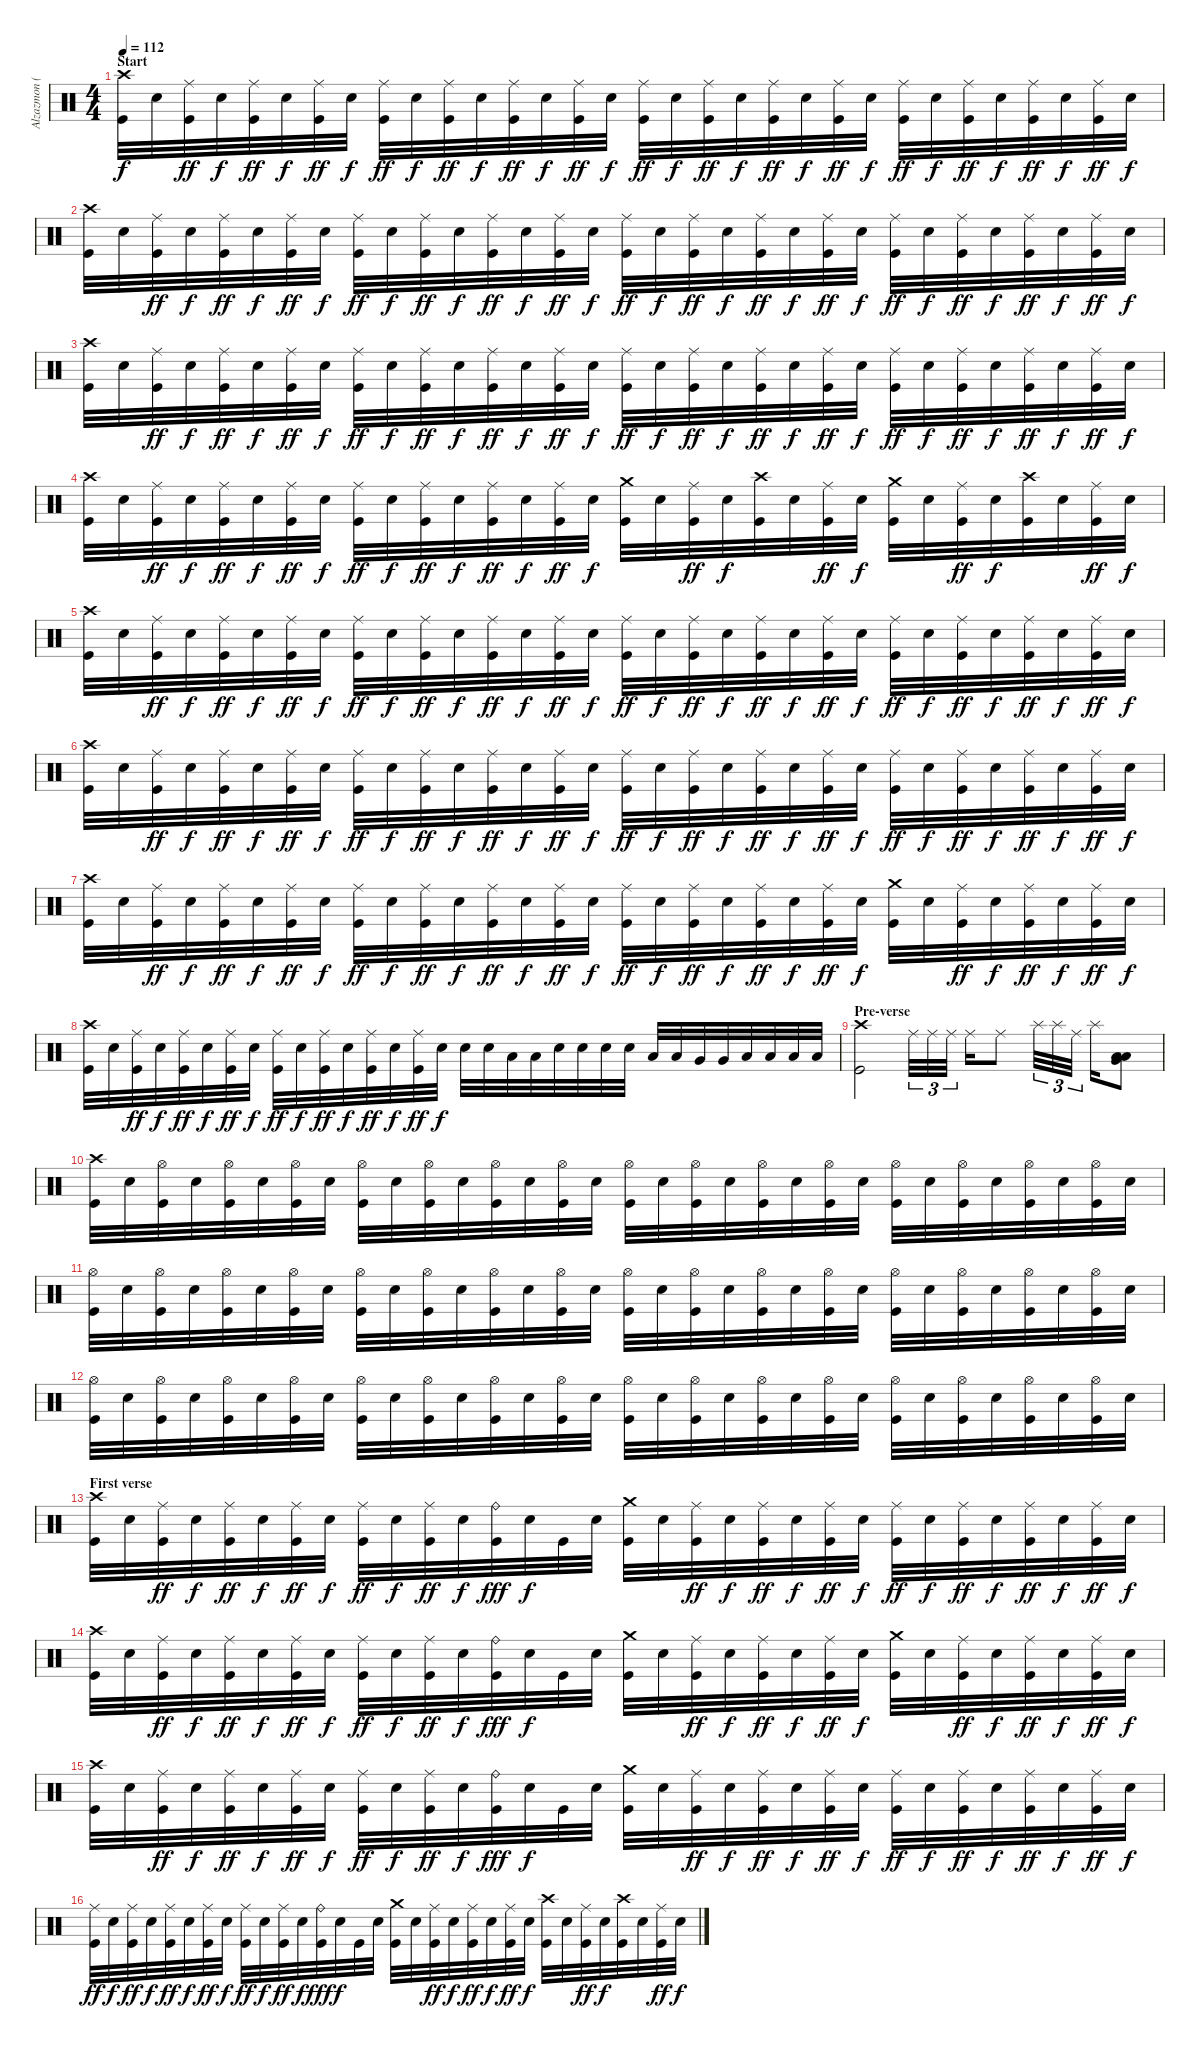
\track ("Alzazmon (Drums)" "Alzazmon (") {instrument percussion}
\staff {score}
\articulation defaults
\ts (4 4)
\section ("" "Start")
\tempo 112
\clef neutral
\ks c
("Crash high (hit)" "Kick (hit)").32{dy f} "Electric Snare (hit)".32 ("Ride (middle)" "Kick (hit)").32{dy ff} "Electric Snare (hit)".32{dy f} ("Ride (middle)" "Kick (hit)").32{dy ff} "Electric Snare (hit)".32{dy f} ("Ride (middle)" "Kick (hit)").32{dy ff} "Electric Snare (hit)".32{dy f} ("Ride (middle)" "Kick (hit)").32{dy ff} "Electric Snare (hit)".32{dy f} ("Ride (middle)" "Kick (hit)").32{dy ff} "Electric Snare (hit)".32{dy f} ("Ride (middle)" "Kick (hit)").32{dy ff} "Electric Snare (hit)".32{dy f} ("Ride (middle)" "Kick (hit)").32{dy ff} "Electric Snare (hit)".32{dy f} ("Ride (middle)" "Kick (hit)").32{dy ff} "Electric Snare (hit)".32{dy f} ("Ride (middle)" "Kick (hit)").32{dy ff} "Electric Snare (hit)".32{dy f} ("Ride (middle)" "Kick (hit)").32{dy ff} "Electric Snare (hit)".32{dy f} ("Ride (middle)" "Kick (hit)").32{dy ff} "Electric Snare (hit)".32{dy f} ("Ride (middle)" "Kick (hit)").32{dy ff} "Electric Snare (hit)".32{dy f} ("Ride (middle)" "Kick (hit)").32{dy ff} "Electric Snare (hit)".32{dy f} ("Ride (middle)" "Kick (hit)").32{dy ff} "Electric Snare (hit)".32{dy f} ("Ride (middle)" "Kick (hit)").32{dy ff} "Electric Snare (hit)".32{dy f} |
("Crash high (hit)" "Kick (hit)").32 "Electric Snare (hit)".32 ("Ride (middle)" "Kick (hit)").32{dy ff} "Electric Snare (hit)".32{dy f} ("Ride (middle)" "Kick (hit)").32{dy ff} "Electric Snare (hit)".32{dy f} ("Ride (middle)" "Kick (hit)").32{dy ff} "Electric Snare (hit)".32{dy f} ("Ride (middle)" "Kick (hit)").32{dy ff} "Electric Snare (hit)".32{dy f} ("Ride (middle)" "Kick (hit)").32{dy ff} "Electric Snare (hit)".32{dy f} ("Ride (middle)" "Kick (hit)").32{dy ff} "Electric Snare (hit)".32{dy f} ("Ride (middle)" "Kick (hit)").32{dy ff} "Electric Snare (hit)".32{dy f} ("Ride (middle)" "Kick (hit)").32{dy ff} "Electric Snare (hit)".32{dy f} ("Ride (middle)" "Kick (hit)").32{dy ff} "Electric Snare (hit)".32{dy f} ("Ride (middle)" "Kick (hit)").32{dy ff} "Electric Snare (hit)".32{dy f} ("Ride (middle)" "Kick (hit)").32{dy ff} "Electric Snare (hit)".32{dy f} ("Ride (middle)" "Kick (hit)").32{dy ff} "Electric Snare (hit)".32{dy f} ("Ride (middle)" "Kick (hit)").32{dy ff} "Electric Snare (hit)".32{dy f} ("Ride (middle)" "Kick (hit)").32{dy ff} "Electric Snare (hit)".32{dy f} ("Ride (middle)" "Kick (hit)").32{dy ff} "Electric Snare (hit)".32{dy f} |
("Crash high (hit)" "Kick (hit)").32 "Electric Snare (hit)".32 ("Ride (middle)" "Kick (hit)").32{dy ff} "Electric Snare (hit)".32{dy f} ("Ride (middle)" "Kick (hit)").32{dy ff} "Electric Snare (hit)".32{dy f} ("Ride (middle)" "Kick (hit)").32{dy ff} "Electric Snare (hit)".32{dy f} ("Ride (middle)" "Kick (hit)").32{dy ff} "Electric Snare (hit)".32{dy f} ("Ride (middle)" "Kick (hit)").32{dy ff} "Electric Snare (hit)".32{dy f} ("Ride (middle)" "Kick (hit)").32{dy ff} "Electric Snare (hit)".32{dy f} ("Ride (middle)" "Kick (hit)").32{dy ff} "Electric Snare (hit)".32{dy f} ("Ride (middle)" "Kick (hit)").32{dy ff} "Electric Snare (hit)".32{dy f} ("Ride (middle)" "Kick (hit)").32{dy ff} "Electric Snare (hit)".32{dy f} ("Ride (middle)" "Kick (hit)").32{dy ff} "Electric Snare (hit)".32{dy f} ("Ride (middle)" "Kick (hit)").32{dy ff} "Electric Snare (hit)".32{dy f} ("Ride (middle)" "Kick (hit)").32{dy ff} "Electric Snare (hit)".32{dy f} ("Ride (middle)" "Kick (hit)").32{dy ff} "Electric Snare (hit)".32{dy f} ("Ride (middle)" "Kick (hit)").32{dy ff} "Electric Snare (hit)".32{dy f} ("Ride (middle)" "Kick (hit)").32{dy ff} "Electric Snare (hit)".32{dy f} |
("Crash high (hit)" "Kick (hit)").32 "Electric Snare (hit)".32 ("Ride (middle)" "Kick (hit)").32{dy ff} "Electric Snare (hit)".32{dy f} ("Ride (middle)" "Kick (hit)").32{dy ff} "Electric Snare (hit)".32{dy f} ("Ride (middle)" "Kick (hit)").32{dy ff} "Electric Snare (hit)".32{dy f} ("Ride (middle)" "Kick (hit)").32{dy ff} "Electric Snare (hit)".32{dy f} ("Ride (middle)" "Kick (hit)").32{dy ff} "Electric Snare (hit)".32{dy f} ("Ride (middle)" "Kick (hit)").32{dy ff} "Electric Snare (hit)".32{dy f} ("Ride (middle)" "Kick (hit)").32{dy ff} "Electric Snare (hit)".32{dy f} ("Crash medium (hit)" "Kick (hit)").32 "Electric Snare (hit)".32 ("Ride (middle)" "Kick (hit)").32{dy ff} "Electric Snare (hit)".32{dy f} ("Crash high (hit)" "Kick (hit)").32 "Electric Snare (hit)".32 ("Ride (middle)" "Kick (hit)").32{dy ff} "Electric Snare (hit)".32{dy f} ("Crash medium (hit)" "Kick (hit)").32 "Electric Snare (hit)".32 ("Ride (middle)" "Kick (hit)").32{dy ff} "Electric Snare (hit)".32{dy f} ("Crash high (hit)" "Kick (hit)").32 "Electric Snare (hit)".32 ("Ride (middle)" "Kick (hit)").32{dy ff} "Electric Snare (hit)".32{dy f} |
("Crash high (hit)" "Kick (hit)").32 "Electric Snare (hit)".32 ("Ride (middle)" "Kick (hit)").32{dy ff} "Electric Snare (hit)".32{dy f} ("Ride (middle)" "Kick (hit)").32{dy ff} "Electric Snare (hit)".32{dy f} ("Ride (middle)" "Kick (hit)").32{dy ff} "Electric Snare (hit)".32{dy f} ("Ride (middle)" "Kick (hit)").32{dy ff} "Electric Snare (hit)".32{dy f} ("Ride (middle)" "Kick (hit)").32{dy ff} "Electric Snare (hit)".32{dy f} ("Ride (middle)" "Kick (hit)").32{dy ff} "Electric Snare (hit)".32{dy f} ("Ride (middle)" "Kick (hit)").32{dy ff} "Electric Snare (hit)".32{dy f} ("Ride (middle)" "Kick (hit)").32{dy ff} "Electric Snare (hit)".32{dy f} ("Ride (middle)" "Kick (hit)").32{dy ff} "Electric Snare (hit)".32{dy f} ("Ride (middle)" "Kick (hit)").32{dy ff} "Electric Snare (hit)".32{dy f} ("Ride (middle)" "Kick (hit)").32{dy ff} "Electric Snare (hit)".32{dy f} ("Ride (middle)" "Kick (hit)").32{dy ff} "Electric Snare (hit)".32{dy f} ("Ride (middle)" "Kick (hit)").32{dy ff} "Electric Snare (hit)".32{dy f} ("Ride (middle)" "Kick (hit)").32{dy ff} "Electric Snare (hit)".32{dy f} ("Ride (middle)" "Kick (hit)").32{dy ff} "Electric Snare (hit)".32{dy f} |
("Crash high (hit)" "Kick (hit)").32 "Electric Snare (hit)".32 ("Ride (middle)" "Kick (hit)").32{dy ff} "Electric Snare (hit)".32{dy f} ("Ride (middle)" "Kick (hit)").32{dy ff} "Electric Snare (hit)".32{dy f} ("Ride (middle)" "Kick (hit)").32{dy ff} "Electric Snare (hit)".32{dy f} ("Ride (middle)" "Kick (hit)").32{dy ff} "Electric Snare (hit)".32{dy f} ("Ride (middle)" "Kick (hit)").32{dy ff} "Electric Snare (hit)".32{dy f} ("Ride (middle)" "Kick (hit)").32{dy ff} "Electric Snare (hit)".32{dy f} ("Ride (middle)" "Kick (hit)").32{dy ff} "Electric Snare (hit)".32{dy f} ("Ride (middle)" "Kick (hit)").32{dy ff} "Electric Snare (hit)".32{dy f} ("Ride (middle)" "Kick (hit)").32{dy ff} "Electric Snare (hit)".32{dy f} ("Ride (middle)" "Kick (hit)").32{dy ff} "Electric Snare (hit)".32{dy f} ("Ride (middle)" "Kick (hit)").32{dy ff} "Electric Snare (hit)".32{dy f} ("Ride (middle)" "Kick (hit)").32{dy ff} "Electric Snare (hit)".32{dy f} ("Ride (middle)" "Kick (hit)").32{dy ff} "Electric Snare (hit)".32{dy f} ("Ride (middle)" "Kick (hit)").32{dy ff} "Electric Snare (hit)".32{dy f} ("Ride (middle)" "Kick (hit)").32{dy ff} "Electric Snare (hit)".32{dy f} |
("Crash high (hit)" "Kick (hit)").32 "Electric Snare (hit)".32 ("Ride (middle)" "Kick (hit)").32{dy ff} "Electric Snare (hit)".32{dy f} ("Ride (middle)" "Kick (hit)").32{dy ff} "Electric Snare (hit)".32{dy f} ("Ride (middle)" "Kick (hit)").32{dy ff} "Electric Snare (hit)".32{dy f} ("Ride (middle)" "Kick (hit)").32{dy ff} "Electric Snare (hit)".32{dy f} ("Ride (middle)" "Kick (hit)").32{dy ff} "Electric Snare (hit)".32{dy f} ("Ride (middle)" "Kick (hit)").32{dy ff} "Electric Snare (hit)".32{dy f} ("Ride (middle)" "Kick (hit)").32{dy ff} "Electric Snare (hit)".32{dy f} ("Ride (middle)" "Kick (hit)").32{dy ff} "Electric Snare (hit)".32{dy f} ("Ride (middle)" "Kick (hit)").32{dy ff} "Electric Snare (hit)".32{dy f} ("Ride (middle)" "Kick (hit)").32{dy ff} "Electric Snare (hit)".32{dy f} ("Ride (middle)" "Kick (hit)").32{dy ff} "Electric Snare (hit)".32{dy f} ("Crash medium (hit)" "Kick (hit)").32 "Electric Snare (hit)".32 ("Ride (middle)" "Kick (hit)").32{dy ff} "Electric Snare (hit)".32{dy f} ("Ride (middle)" "Kick (hit)").32{dy ff} "Electric Snare (hit)".32{dy f} ("Ride (middle)" "Kick (hit)").32{dy ff} "Electric Snare (hit)".32{dy f} |
("Crash high (hit)" "Kick (hit)").32 "Electric Snare (hit)".32 ("Ride (middle)" "Kick (hit)").32{dy ff} "Electric Snare (hit)".32{dy f} ("Ride (middle)" "Kick (hit)").32{dy ff} "Electric Snare (hit)".32{dy f} ("Ride (middle)" "Kick (hit)").32{dy ff} "Electric Snare (hit)".32{dy f} ("Ride (middle)" "Kick (hit)").32{dy ff} "Electric Snare (hit)".32{dy f} ("Ride (middle)" "Kick (hit)").32{dy ff} "Electric Snare (hit)".32{dy f} ("Ride (middle)" "Kick (hit)").32{dy ff} "Electric Snare (hit)".32{dy f} ("Ride (middle)" "Kick (hit)").32{dy ff} "Electric Snare (hit)".32{dy f} "Electric Snare (hit)".32 "Electric Snare (hit)".32 "Low Tom (hit)".32 "Low Tom (hit)".32 "Electric Snare (hit)".32 "Electric Snare (hit)".32 "Electric Snare (hit)".32 "Electric Snare (hit)".32 "Low Tom (hit)".32 "Low Tom (hit)".32 "Very Low Tom (hit)".32 "Very Low Tom (hit)".32 "Low Tom (hit)".32 "Low Tom (hit)".32 "Low Tom (hit)".32 "Low Tom (hit)".32 |
\section ("" "Pre-verse")
("Crash high (hit)" "Kick (hit)").2 "Ride (middle)".32{tu (3 2)} "Ride (middle)".32{tu (3 2)} "Ride (middle)".32{tu (3 2)} "Ride (middle)".16 "Ride (middle)".8 "Splash (hit)".32{tu (3 2)} "Splash (hit)".32{tu (3 2)} "Ride (middle)".32{tu (3 2)} "Splash (hit)".16 ("Low Tom (hit)" "Low Tom (hit)" "Very Low Tom (hit)").8{bd 60} |
("Crash high (hit)" "Kick (hit)").32 "Electric Snare (hit)".32 ("Hi-Hat (open)" "Kick (hit)").32 "Electric Snare (hit)".32 ("Hi-Hat (open)" "Kick (hit)").32 "Electric Snare (hit)".32 ("Hi-Hat (open)" "Kick (hit)").32 "Electric Snare (hit)".32 ("Hi-Hat (open)" "Kick (hit)").32 "Electric Snare (hit)".32 ("Hi-Hat (open)" "Kick (hit)").32 "Electric Snare (hit)".32 ("Hi-Hat (open)" "Kick (hit)").32 "Electric Snare (hit)".32 ("Hi-Hat (open)" "Kick (hit)").32 "Electric Snare (hit)".32 ("Hi-Hat (open)" "Kick (hit)").32 "Electric Snare (hit)".32 ("Hi-Hat (open)" "Kick (hit)").32 "Electric Snare (hit)".32 ("Hi-Hat (open)" "Kick (hit)").32 "Electric Snare (hit)".32 ("Hi-Hat (open)" "Kick (hit)").32 "Electric Snare (hit)".32 ("Hi-Hat (open)" "Kick (hit)").32 "Electric Snare (hit)".32 ("Hi-Hat (open)" "Kick (hit)").32 "Electric Snare (hit)".32 ("Hi-Hat (open)" "Kick (hit)").32 "Electric Snare (hit)".32 ("Hi-Hat (open)" "Kick (hit)").32 "Electric Snare (hit)".32 |
("Hi-Hat (open)" "Kick (hit)").32 "Electric Snare (hit)".32 ("Hi-Hat (open)" "Kick (hit)").32 "Electric Snare (hit)".32 ("Hi-Hat (open)" "Kick (hit)").32 "Electric Snare (hit)".32 ("Hi-Hat (open)" "Kick (hit)").32 "Electric Snare (hit)".32 ("Hi-Hat (open)" "Kick (hit)").32 "Electric Snare (hit)".32 ("Hi-Hat (open)" "Kick (hit)").32 "Electric Snare (hit)".32 ("Hi-Hat (open)" "Kick (hit)").32 "Electric Snare (hit)".32 ("Hi-Hat (open)" "Kick (hit)").32 "Electric Snare (hit)".32 ("Hi-Hat (open)" "Kick (hit)").32 "Electric Snare (hit)".32 ("Hi-Hat (open)" "Kick (hit)").32 "Electric Snare (hit)".32 ("Hi-Hat (open)" "Kick (hit)").32 "Electric Snare (hit)".32 ("Hi-Hat (open)" "Kick (hit)").32 "Electric Snare (hit)".32 ("Hi-Hat (open)" "Kick (hit)").32 "Electric Snare (hit)".32 ("Hi-Hat (open)" "Kick (hit)").32 "Electric Snare (hit)".32 ("Hi-Hat (open)" "Kick (hit)").32 "Electric Snare (hit)".32 ("Hi-Hat (open)" "Kick (hit)").32 "Electric Snare (hit)".32 |
("Hi-Hat (open)" "Kick (hit)").32 "Electric Snare (hit)".32 ("Hi-Hat (open)" "Kick (hit)").32 "Electric Snare (hit)".32 ("Hi-Hat (open)" "Kick (hit)").32 "Electric Snare (hit)".32 ("Hi-Hat (open)" "Kick (hit)").32 "Electric Snare (hit)".32 ("Hi-Hat (open)" "Kick (hit)").32 "Electric Snare (hit)".32 ("Hi-Hat (open)" "Kick (hit)").32 "Electric Snare (hit)".32 ("Hi-Hat (open)" "Kick (hit)").32 "Electric Snare (hit)".32 ("Hi-Hat (open)" "Kick (hit)").32 "Electric Snare (hit)".32 ("Hi-Hat (open)" "Kick (hit)").32 "Electric Snare (hit)".32 ("Hi-Hat (open)" "Kick (hit)").32 "Electric Snare (hit)".32 ("Hi-Hat (open)" "Kick (hit)").32 "Electric Snare (hit)".32 ("Hi-Hat (open)" "Kick (hit)").32 "Electric Snare (hit)".32 ("Hi-Hat (open)" "Kick (hit)").32 "Electric Snare (hit)".32 ("Hi-Hat (open)" "Kick (hit)").32 "Electric Snare (hit)".32 ("Hi-Hat (open)" "Kick (hit)").32 "Electric Snare (hit)".32 ("Hi-Hat (open)" "Kick (hit)").32 "Electric Snare (hit)".32 |
\section ("" "First verse")
("Crash high (hit)" "Kick (hit)").32 "Electric Snare (hit)".32 ("Ride (middle)" "Kick (hit)").32{dy ff} "Electric Snare (hit)".32{dy f} ("Ride (middle)" "Kick (hit)").32{dy ff} "Electric Snare (hit)".32{dy f} ("Ride (middle)" "Kick (hit)").32{dy ff} "Electric Snare (hit)".32{dy f} ("Ride (middle)" "Kick (hit)").32{dy ff} "Electric Snare (hit)".32{dy f} ("Ride (middle)" "Kick (hit)").32{dy ff} "Electric Snare (hit)".32{dy f} ("Ride (bell)" "Kick (hit)").32{dy fff} "Electric Snare (hit)".32{dy f} "Kick (hit)".32 "Electric Snare (hit)".32 ("Crash medium (hit)" "Kick (hit)").32 "Electric Snare (hit)".32 ("Ride (middle)" "Kick (hit)").32{dy ff} "Electric Snare (hit)".32{dy f} ("Ride (middle)" "Kick (hit)").32{dy ff} "Electric Snare (hit)".32{dy f} ("Ride (middle)" "Kick (hit)").32{dy ff} "Electric Snare (hit)".32{dy f} ("Ride (middle)" "Kick (hit)").32{dy ff} "Electric Snare (hit)".32{dy f} ("Ride (middle)" "Kick (hit)").32{dy ff} "Electric Snare (hit)".32{dy f} ("Ride (middle)" "Kick (hit)").32{dy ff} "Electric Snare (hit)".32{dy f} ("Ride (middle)" "Kick (hit)").32{dy ff} "Electric Snare (hit)".32{dy f} |
("Crash high (hit)" "Kick (hit)").32 "Electric Snare (hit)".32 ("Ride (middle)" "Kick (hit)").32{dy ff} "Electric Snare (hit)".32{dy f} ("Ride (middle)" "Kick (hit)").32{dy ff} "Electric Snare (hit)".32{dy f} ("Ride (middle)" "Kick (hit)").32{dy ff} "Electric Snare (hit)".32{dy f} ("Ride (middle)" "Kick (hit)").32{dy ff} "Electric Snare (hit)".32{dy f} ("Ride (middle)" "Kick (hit)").32{dy ff} "Electric Snare (hit)".32{dy f} ("Ride (bell)" "Kick (hit)").32{dy fff} "Electric Snare (hit)".32{dy f} "Kick (hit)".32 "Electric Snare (hit)".32 ("Crash medium (hit)" "Kick (hit)").32 "Electric Snare (hit)".32 ("Ride (middle)" "Kick (hit)").32{dy ff} "Electric Snare (hit)".32{dy f} ("Ride (middle)" "Kick (hit)").32{dy ff} "Electric Snare (hit)".32{dy f} ("Ride (middle)" "Kick (hit)").32{dy ff} "Electric Snare (hit)".32{dy f} ("Crash medium (hit)" "Kick (hit)").32 "Electric Snare (hit)".32 ("Ride (middle)" "Kick (hit)").32{dy ff} "Electric Snare (hit)".32{dy f} ("Ride (middle)" "Kick (hit)").32{dy ff} "Electric Snare (hit)".32{dy f} ("Ride (middle)" "Kick (hit)").32{dy ff} "Electric Snare (hit)".32{dy f} |
("Crash high (hit)" "Kick (hit)").32 "Electric Snare (hit)".32 ("Ride (middle)" "Kick (hit)").32{dy ff} "Electric Snare (hit)".32{dy f} ("Ride (middle)" "Kick (hit)").32{dy ff} "Electric Snare (hit)".32{dy f} ("Ride (middle)" "Kick (hit)").32{dy ff} "Electric Snare (hit)".32{dy f} ("Ride (middle)" "Kick (hit)").32{dy ff} "Electric Snare (hit)".32{dy f} ("Ride (middle)" "Kick (hit)").32{dy ff} "Electric Snare (hit)".32{dy f} ("Ride (bell)" "Kick (hit)").32{dy fff} "Electric Snare (hit)".32{dy f} "Kick (hit)".32 "Electric Snare (hit)".32 ("Crash medium (hit)" "Kick (hit)").32 "Electric Snare (hit)".32 ("Ride (middle)" "Kick (hit)").32{dy ff} "Electric Snare (hit)".32{dy f} ("Ride (middle)" "Kick (hit)").32{dy ff} "Electric Snare (hit)".32{dy f} ("Ride (middle)" "Kick (hit)").32{dy ff} "Electric Snare (hit)".32{dy f} ("Ride (middle)" "Kick (hit)").32{dy ff} "Electric Snare (hit)".32{dy f} ("Ride (middle)" "Kick (hit)").32{dy ff} "Electric Snare (hit)".32{dy f} ("Ride (middle)" "Kick (hit)").32{dy ff} "Electric Snare (hit)".32{dy f} ("Ride (middle)" "Kick (hit)").32{dy ff} "Electric Snare (hit)".32{dy f} |
("Ride (middle)" "Kick (hit)").32{dy ff} "Electric Snare (hit)".32{dy f} ("Ride (middle)" "Kick (hit)").32{dy ff} "Electric Snare (hit)".32{dy f} ("Ride (middle)" "Kick (hit)").32{dy ff} "Electric Snare (hit)".32{dy f} ("Ride (middle)" "Kick (hit)").32{dy ff} "Electric Snare (hit)".32{dy f} ("Ride (middle)" "Kick (hit)").32{dy ff} "Electric Snare (hit)".32{dy f} ("Ride (middle)" "Kick (hit)").32{dy ff} "Electric Snare (hit)".32{dy f} ("Ride (bell)" "Kick (hit)").32{dy fff} "Electric Snare (hit)".32{dy f} "Kick (hit)".32 "Electric Snare (hit)".32 ("Crash medium (hit)" "Kick (hit)").32 "Electric Snare (hit)".32 ("Ride (middle)" "Kick (hit)").32{dy ff} "Electric Snare (hit)".32{dy f} ("Ride (middle)" "Kick (hit)").32{dy ff} "Electric Snare (hit)".32{dy f} ("Ride (middle)" "Kick (hit)").32{dy ff} "Electric Snare (hit)".32{dy f} ("Crash high (hit)" "Kick (hit)").32 "Electric Snare (hit)".32 ("Ride (middle)" "Kick (hit)").32{dy ff} "Electric Snare (hit)".32{dy f} ("Crash high (hit)" "Kick (hit)").32 "Electric Snare (hit)".32 ("Ride (middle)" "Kick (hit)").32{dy ff} "Electric Snare (hit)".32{dy f}
